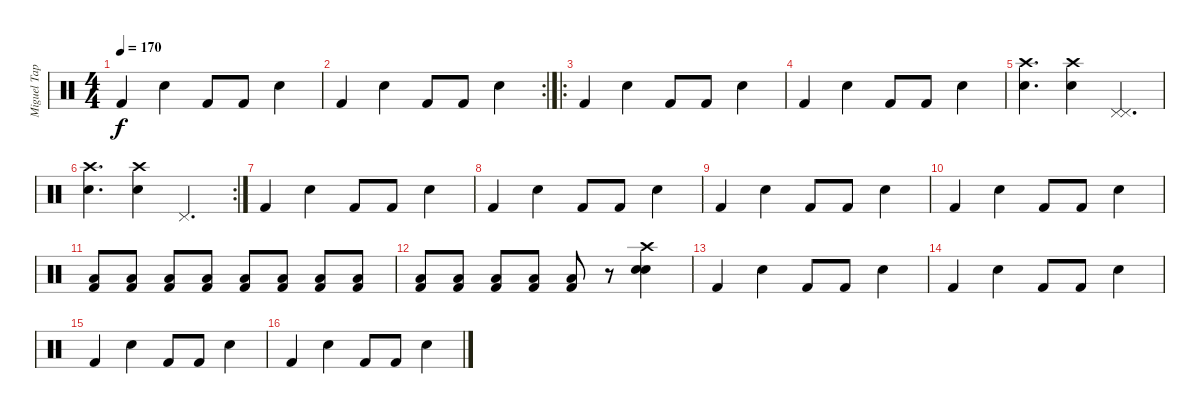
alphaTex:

\track ("Miguel Tapia" "Miguel Tap") {instrument percussion}
\staff {score}
\articulation defaults
\ts (4 4)
\tempo 170
\clef neutral
\ks c "Kick (hit) 2".4{dy f} "Snare (hit) 2".4 "Kick (hit) 2".8 "Kick (hit) 2".8 "Snare (hit) 2".4
|
\rc 2 "Kick (hit) 2".4 "Snare (hit) 2".4 "Kick (hit) 2".8 "Kick (hit) 2".8 "Snare (hit) 2".4
|
\ro "Kick (hit) 2".4 "Snare (hit) 2".4 "Kick (hit) 2".8 "Kick (hit) 2".8 "Snare (hit) 2".4
|
"Kick (hit) 2".4 "Snare (hit) 2".4 "Kick (hit) 2".8 "Kick (hit) 2".8 "Snare (hit) 2".4 |
("Snare (hit) 2" "Crash high (hit)").4{d} ("Snare (hit) 2" "Crash high (hit)").4 ("Pedal Hi-Hat (hit)" "Pedal Hi-Hat (hit)").4{d} |
\rc 2
("Snare (hit) 2" "Crash high (hit)").4{d} ("Snare (hit) 2" "Crash high (hit)").4 "Pedal Hi-Hat (hit)".4{d} |
"Kick (hit) 2".4 "Snare (hit) 2".4 "Kick (hit) 2".8 "Kick (hit) 2".8 "Snare (hit) 2".4 |
"Kick (hit) 2".4 "Snare (hit) 2".4 "Kick (hit) 2".8 "Kick (hit) 2".8 "Snare (hit) 2".4 |
"Kick (hit) 2".4 "Snare (hit) 2".4 "Kick (hit) 2".8 "Kick (hit) 2".8 "Snare (hit) 2".4 |
"Kick (hit) 2".4 "Snare (hit) 2".4 "Kick (hit) 2".8 "Kick (hit) 2".8 "Snare (hit) 2".4 |
("Kick (hit) 2" "Low Tom (hit)").8 ("Kick (hit) 2" "Low Tom (hit)").8 ("Kick (hit) 2" "Low Tom (hit)").8 ("Kick (hit) 2" "Low Tom (hit)").8 ("Kick (hit) 2" "Low Tom (hit)").8 ("Kick (hit) 2" "Low Tom (hit)").8 ("Kick (hit) 2" "Low Tom (hit)").8 ("Kick (hit) 2" "Low Tom (hit)").8 |
("Kick (hit) 2" "Low Tom (hit)").8 ("Kick (hit) 2" "Low Tom (hit)").8 ("Kick (hit) 2" "Low Tom (hit)").8 ("Kick (hit) 2" "Low Tom (hit)").8 ("Kick (hit) 2" "Low Tom (hit)").8 r.8 ("Crash high (hit)" "Snare (hit) 2" "Snare (hit) 2").4 |
"Kick (hit) 2".4 "Snare (hit) 2".4 "Kick (hit) 2".8 "Kick (hit) 2".8 "Snare (hit) 2".4 |
"Kick (hit) 2".4 "Snare (hit) 2".4 "Kick (hit) 2".8 "Kick (hit) 2".8 "Snare (hit) 2".4 |
"Kick (hit) 2".4 "Snare (hit) 2".4 "Kick (hit) 2".8 "Kick (hit) 2".8 "Snare (hit) 2".4 |
"Kick (hit) 2".4 "Snare (hit) 2".4 "Kick (hit) 2".8 "Kick (hit) 2".8 "Snare (hit) 2".4
